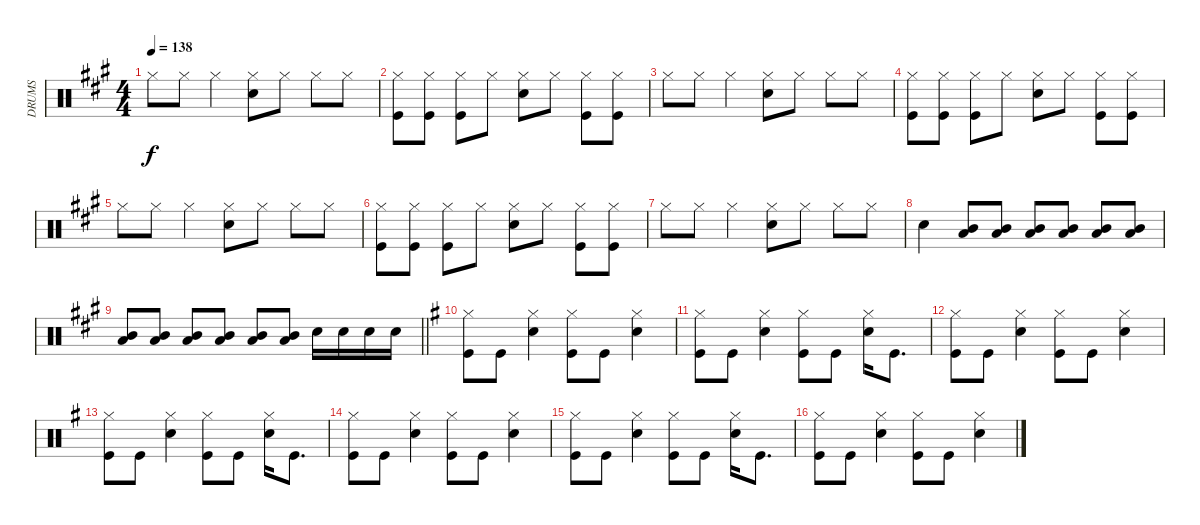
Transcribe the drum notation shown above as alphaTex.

\track ("DRUMS" "DRUMS") {instrument percussion}
\staff {score}
\articulation defaults
\ts (4 4)
\tempo 138
\clef neutral
\ks f#minor "Hi-Hat (closed)".8{dy f} "Hi-Hat (closed)".8 "Hi-Hat (closed)".4
("Hi-Hat (closed)" "Snare (hit) 2").8 "Hi-Hat (closed)".8 "Hi-Hat (closed)".8 "Hi-Hat (closed)".8 |
("Hi-Hat (closed)" "Kick (hit)").8 ("Hi-Hat (closed)" "Kick (hit)").8 ("Hi-Hat (closed)" "Kick (hit)").8 "Hi-Hat (closed)".8 ("Hi-Hat (closed)" "Snare (hit) 2").8 "Hi-Hat (closed)".8 ("Hi-Hat (closed)" "Kick (hit)").8 ("Hi-Hat (closed)" "Kick (hit)").8 |
"Hi-Hat (closed)".8 "Hi-Hat (closed)".8 "Hi-Hat (closed)".4 ("Hi-Hat (closed)" "Snare (hit) 2").8 "Hi-Hat (closed)".8 "Hi-Hat (closed)".8 "Hi-Hat (closed)".8 |
("Hi-Hat (closed)" "Kick (hit)").8 ("Hi-Hat (closed)" "Kick (hit)").8 ("Hi-Hat (closed)" "Kick (hit)").8 "Hi-Hat (closed)".8 ("Hi-Hat (closed)" "Snare (hit) 2").8 "Hi-Hat (closed)".8 ("Hi-Hat (closed)" "Kick (hit)").8 ("Hi-Hat (closed)" "Kick (hit)").8 |
"Hi-Hat (closed)".8 "Hi-Hat (closed)".8 "Hi-Hat (closed)".4 ("Hi-Hat (closed)" "Snare (hit) 2").8 "Hi-Hat (closed)".8 "Hi-Hat (closed)".8 "Hi-Hat (closed)".8 |
("Hi-Hat (closed)" "Kick (hit)").8 ("Hi-Hat (closed)" "Kick (hit)").8 ("Hi-Hat (closed)" "Kick (hit)").8 "Hi-Hat (closed)".8 ("Hi-Hat (closed)" "Snare (hit) 2").8 "Hi-Hat (closed)".8 ("Hi-Hat (closed)" "Kick (hit)").8 ("Hi-Hat (closed)" "Kick (hit)").8 |
"Hi-Hat (closed)".8 "Hi-Hat (closed)".8 "Hi-Hat (closed)".4 ("Hi-Hat (closed)" "Snare (hit) 2").8 "Hi-Hat (closed)".8 "Hi-Hat (closed)".8 "Hi-Hat (closed)".8 |
"Snare (hit) 2".4 ("Mid Tom (hit)" "Low Tom (hit)").8 ("Mid Tom (hit)" "Low Tom (hit)").8 ("Mid Tom (hit)" "Low Tom (hit)").8 ("Mid Tom (hit)" "Low Tom (hit)").8 ("Mid Tom (hit)" "Low Tom (hit)").8 ("Mid Tom (hit)" "Low Tom (hit)").8 |
\barLineRight lightlight
("Mid Tom (hit)" "Low Tom (hit)").8 ("Mid Tom (hit)" "Low Tom (hit)").8 ("Mid Tom (hit)" "Low Tom (hit)").8 ("Mid Tom (hit)" "Low Tom (hit)").8 ("Mid Tom (hit)" "Low Tom (hit)").8 ("Mid Tom (hit)" "Low Tom (hit)").8 "Snare (hit) 2".16 "Snare (hit) 2".16 "Snare (hit) 2".16 "Snare (hit) 2".16 |
\ks eminor
("Hi-Hat (closed)" "Kick (hit)").8 "Kick (hit)".8 ("Hi-Hat (closed)" "Snare (hit) 2").4 ("Hi-Hat (closed)" "Kick (hit)").8 "Kick (hit)".8 ("Hi-Hat (closed)" "Snare (hit) 2").4 |
("Hi-Hat (closed)" "Kick (hit)").8 "Kick (hit)".8 ("Hi-Hat (closed)" "Snare (hit) 2").4 ("Hi-Hat (closed)" "Kick (hit)").8 "Kick (hit)".8 ("Hi-Hat (closed)" "Snare (hit) 2").16 "Kick (hit)".8{d} |
("Hi-Hat (closed)" "Kick (hit)").8 "Kick (hit)".8 ("Hi-Hat (closed)" "Snare (hit) 2").4 ("Hi-Hat (closed)" "Kick (hit)").8 "Kick (hit)".8 ("Hi-Hat (closed)" "Snare (hit) 2").4 |
("Hi-Hat (closed)" "Kick (hit)").8 "Kick (hit)".8 ("Hi-Hat (closed)" "Snare (hit) 2").4 ("Hi-Hat (closed)" "Kick (hit)").8 "Kick (hit)".8 ("Hi-Hat (closed)" "Snare (hit) 2").16 "Kick (hit)".8{d} |
("Hi-Hat (closed)" "Kick (hit)").8 "Kick (hit)".8 ("Hi-Hat (closed)" "Snare (hit) 2").4 ("Hi-Hat (closed)" "Kick (hit)").8 "Kick (hit)".8 ("Hi-Hat (closed)" "Snare (hit) 2").4 |
("Hi-Hat (closed)" "Kick (hit)").8 "Kick (hit)".8 ("Hi-Hat (closed)" "Snare (hit) 2").4 ("Hi-Hat (closed)" "Kick (hit)").8 "Kick (hit)".8 ("Hi-Hat (closed)" "Snare (hit) 2").16 "Kick (hit)".8{d} |
("Hi-Hat (closed)" "Kick (hit)").8 "Kick (hit)".8 ("Hi-Hat (closed)" "Snare (hit) 2").4 ("Hi-Hat (closed)" "Kick (hit)").8 "Kick (hit)".8 ("Hi-Hat (closed)" "Snare (hit) 2").4
